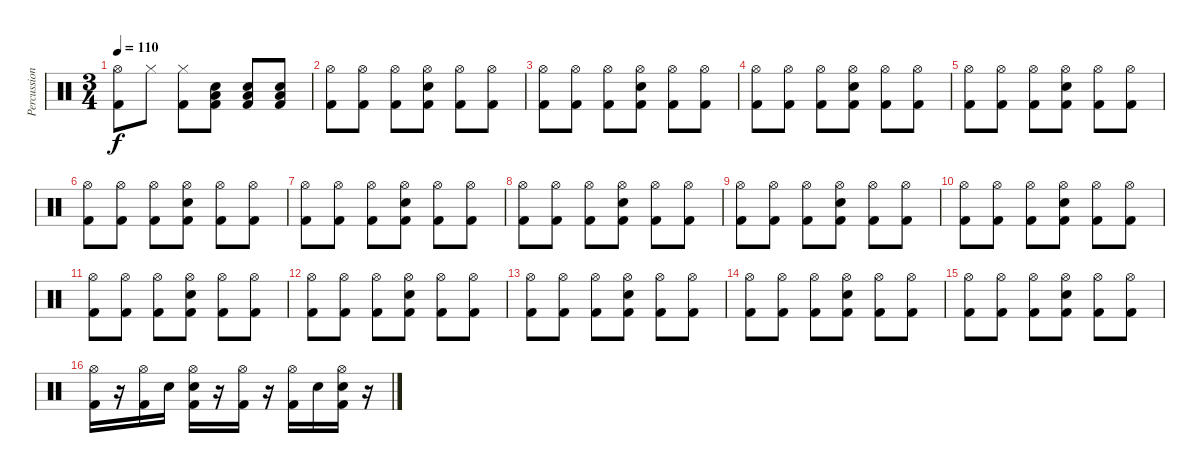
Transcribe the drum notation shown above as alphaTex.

\track ("Percussion" "Percussion") {instrument percussion}
\staff {score}
\articulation defaults
\ts (3 4)
\tempo 110
\clef neutral
\ks c
("Hi-Hat (open)" "Kick (hit) 2").8{dy f} "Hi-Hat (closed)".8 ("Hi-Hat (closed)" "Kick (hit) 2").8 ("Electric Snare (hit)" "Low Floor Tom (hit)" "Kick (hit) 2").8 ("Electric Snare (hit)" "Low Floor Tom (hit)" "Kick (hit) 2").8 ("Electric Snare (hit)" "Low Floor Tom (hit)" "Kick (hit) 2").8 |
("Hi-Hat (open)" "Kick (hit) 2").8 ("Hi-Hat (open)" "Kick (hit) 2").8 ("Hi-Hat (open)" "Kick (hit) 2").8 ("Hi-Hat (open)" "Electric Snare (hit)" "Kick (hit) 2").8 ("Hi-Hat (open)" "Kick (hit) 2").8 ("Hi-Hat (open)" "Kick (hit) 2").8 |
("Hi-Hat (open)" "Kick (hit) 2").8 ("Hi-Hat (open)" "Kick (hit) 2").8 ("Hi-Hat (open)" "Kick (hit) 2").8 ("Hi-Hat (open)" "Electric Snare (hit)" "Kick (hit) 2").8 ("Hi-Hat (open)" "Kick (hit) 2").8 ("Hi-Hat (open)" "Kick (hit) 2").8 |
("Hi-Hat (open)" "Kick (hit) 2").8 ("Hi-Hat (open)" "Kick (hit) 2").8 ("Hi-Hat (open)" "Kick (hit) 2").8 ("Hi-Hat (open)" "Electric Snare (hit)" "Kick (hit) 2").8 ("Hi-Hat (open)" "Kick (hit) 2").8 ("Hi-Hat (open)" "Kick (hit) 2").8 |
("Hi-Hat (open)" "Kick (hit) 2").8 ("Hi-Hat (open)" "Kick (hit) 2").8 ("Hi-Hat (open)" "Kick (hit) 2").8 ("Hi-Hat (open)" "Electric Snare (hit)" "Kick (hit) 2").8 ("Hi-Hat (open)" "Kick (hit) 2").8 ("Hi-Hat (open)" "Kick (hit) 2").8 |
("Hi-Hat (open)" "Kick (hit) 2").8 ("Hi-Hat (open)" "Kick (hit) 2").8 ("Hi-Hat (open)" "Kick (hit) 2").8 ("Hi-Hat (open)" "Electric Snare (hit)" "Kick (hit) 2").8 ("Hi-Hat (open)" "Kick (hit) 2").8 ("Hi-Hat (open)" "Kick (hit) 2").8 |
("Hi-Hat (open)" "Kick (hit) 2").8 ("Hi-Hat (open)" "Kick (hit) 2").8 ("Hi-Hat (open)" "Kick (hit) 2").8 ("Hi-Hat (open)" "Electric Snare (hit)" "Kick (hit) 2").8 ("Hi-Hat (open)" "Kick (hit) 2").8 ("Hi-Hat (open)" "Kick (hit) 2").8 |
("Hi-Hat (open)" "Kick (hit) 2").8 ("Hi-Hat (open)" "Kick (hit) 2").8 ("Hi-Hat (open)" "Kick (hit) 2").8 ("Hi-Hat (open)" "Electric Snare (hit)" "Kick (hit) 2").8 ("Hi-Hat (open)" "Kick (hit) 2").8 ("Hi-Hat (open)" "Kick (hit) 2").8 |
("Hi-Hat (open)" "Kick (hit) 2").8 ("Hi-Hat (open)" "Kick (hit) 2").8 ("Hi-Hat (open)" "Kick (hit) 2").8 ("Hi-Hat (open)" "Electric Snare (hit)" "Kick (hit) 2").8 ("Hi-Hat (open)" "Kick (hit) 2").8 ("Hi-Hat (open)" "Kick (hit) 2").8 |
("Hi-Hat (open)" "Kick (hit) 2").8 ("Hi-Hat (open)" "Kick (hit) 2").8 ("Hi-Hat (open)" "Kick (hit) 2").8 ("Hi-Hat (open)" "Electric Snare (hit)" "Kick (hit) 2").8 ("Hi-Hat (open)" "Kick (hit) 2").8 ("Hi-Hat (open)" "Kick (hit) 2").8 |
("Hi-Hat (open)" "Kick (hit) 2").8 ("Hi-Hat (open)" "Kick (hit) 2").8 ("Hi-Hat (open)" "Kick (hit) 2").8 ("Hi-Hat (open)" "Electric Snare (hit)" "Kick (hit) 2").8 ("Hi-Hat (open)" "Kick (hit) 2").8 ("Hi-Hat (open)" "Kick (hit) 2").8 |
("Hi-Hat (open)" "Kick (hit) 2").8 ("Hi-Hat (open)" "Kick (hit) 2").8 ("Hi-Hat (open)" "Kick (hit) 2").8 ("Hi-Hat (open)" "Electric Snare (hit)" "Kick (hit) 2").8 ("Hi-Hat (open)" "Kick (hit) 2").8 ("Hi-Hat (open)" "Kick (hit) 2").8 |
("Hi-Hat (open)" "Kick (hit) 2").8 ("Hi-Hat (open)" "Kick (hit) 2").8 ("Hi-Hat (open)" "Kick (hit) 2").8 ("Hi-Hat (open)" "Electric Snare (hit)" "Kick (hit) 2").8 ("Hi-Hat (open)" "Kick (hit) 2").8 ("Hi-Hat (open)" "Kick (hit) 2").8 |
("Hi-Hat (open)" "Kick (hit) 2").8 ("Hi-Hat (open)" "Kick (hit) 2").8 ("Hi-Hat (open)" "Kick (hit) 2").8 ("Hi-Hat (open)" "Electric Snare (hit)" "Kick (hit) 2").8 ("Hi-Hat (open)" "Kick (hit) 2").8 ("Hi-Hat (open)" "Kick (hit) 2").8 |
("Hi-Hat (open)" "Kick (hit) 2").8 ("Hi-Hat (open)" "Kick (hit) 2").8 ("Hi-Hat (open)" "Kick (hit) 2").8 ("Hi-Hat (open)" "Electric Snare (hit)" "Kick (hit) 2").8 ("Hi-Hat (open)" "Kick (hit) 2").8 ("Hi-Hat (open)" "Kick (hit) 2").8 |
("Hi-Hat (open)" "Kick (hit) 2").16 r.16 ("Hi-Hat (open)" "Kick (hit) 2").16 "Electric Snare (hit)".16 ("Hi-Hat (open)" "Electric Snare (hit)" "Kick (hit) 2").16 r.16 ("Hi-Hat (open)" "Kick (hit) 2").16 r.16 ("Hi-Hat (open)" "Kick (hit) 2").16 "Electric Snare (hit)".16 ("Hi-Hat (open)" "Electric Snare (hit)" "Kick (hit) 2").16 r.16
